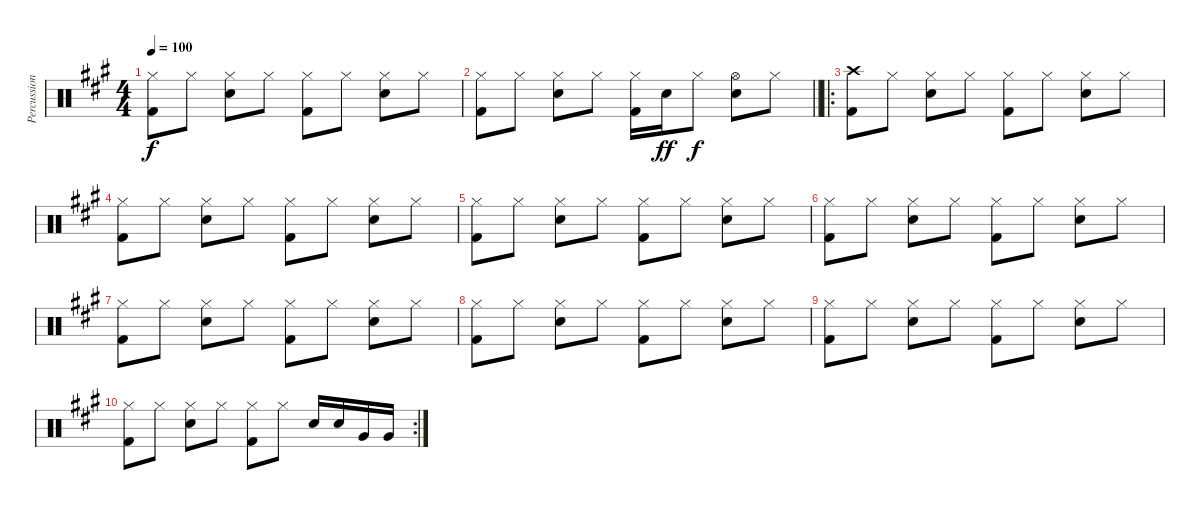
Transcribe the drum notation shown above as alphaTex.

\track ("Percussion" "Percussion") {instrument percussion}
\staff {score}
\articulation defaults
\ts (4 4)
\tempo 100
\clef neutral
\ks a
("Hi-Hat (closed)" "Kick (hit) 2").8{dy f} "Hi-Hat (closed)".8 ("Hi-Hat (closed)" "Snare (hit) 2").8 "Hi-Hat (closed)".8 ("Hi-Hat (closed)" "Kick (hit) 2").8 "Hi-Hat (closed)".8 ("Hi-Hat (closed)" "Snare (hit) 2").8 "Hi-Hat (closed)".8 |
\barLineRight lightlight
("Hi-Hat (closed)" "Kick (hit) 2").8 "Hi-Hat (closed)".8 ("Hi-Hat (closed)" "Snare (hit) 2").8 "Hi-Hat (closed)".8 ("Hi-Hat (closed)" "Kick (hit) 2").16 "Snare (hit) 2".16{dy ff} "Hi-Hat (closed)".8{dy f} ("Hi-Hat (open)" "Snare (hit) 2").8 "Hi-Hat (closed)".8 |
\ro
("Crash high (hit)" "Kick (hit) 2").8 "Hi-Hat (closed)".8 ("Hi-Hat (closed)" "Snare (hit) 2").8 "Hi-Hat (closed)".8 ("Hi-Hat (closed)" "Kick (hit) 2").8 "Hi-Hat (closed)".8 ("Hi-Hat (closed)" "Snare (hit) 2").8 "Hi-Hat (closed)".8 |
("Hi-Hat (closed)" "Kick (hit) 2").8 "Hi-Hat (closed)".8 ("Hi-Hat (closed)" "Snare (hit) 2").8 "Hi-Hat (closed)".8 ("Hi-Hat (closed)" "Kick (hit) 2").8 "Hi-Hat (closed)".8 ("Hi-Hat (closed)" "Snare (hit) 2").8 "Hi-Hat (closed)".8 |
("Hi-Hat (closed)" "Kick (hit) 2").8 "Hi-Hat (closed)".8 ("Hi-Hat (closed)" "Snare (hit) 2").8 "Hi-Hat (closed)".8 ("Hi-Hat (closed)" "Kick (hit) 2").8 "Hi-Hat (closed)".8 ("Hi-Hat (closed)" "Snare (hit) 2").8 "Hi-Hat (closed)".8 |
("Hi-Hat (closed)" "Kick (hit) 2").8 "Hi-Hat (closed)".8 ("Hi-Hat (closed)" "Snare (hit) 2").8 "Hi-Hat (closed)".8 ("Hi-Hat (closed)" "Kick (hit) 2").8 "Hi-Hat (closed)".8 ("Hi-Hat (closed)" "Snare (hit) 2").8 "Hi-Hat (closed)".8 |
("Hi-Hat (closed)" "Kick (hit) 2").8 "Hi-Hat (closed)".8 ("Hi-Hat (closed)" "Snare (hit) 2").8 "Hi-Hat (closed)".8 ("Hi-Hat (closed)" "Kick (hit) 2").8 "Hi-Hat (closed)".8 ("Hi-Hat (closed)" "Snare (hit) 2").8 "Hi-Hat (closed)".8 |
("Hi-Hat (closed)" "Kick (hit) 2").8 "Hi-Hat (closed)".8 ("Hi-Hat (closed)" "Snare (hit) 2").8 "Hi-Hat (closed)".8 ("Hi-Hat (closed)" "Kick (hit) 2").8 "Hi-Hat (closed)".8 ("Hi-Hat (closed)" "Snare (hit) 2").8 "Hi-Hat (closed)".8 |
("Hi-Hat (closed)" "Kick (hit) 2").8 "Hi-Hat (closed)".8 ("Hi-Hat (closed)" "Snare (hit) 2").8 "Hi-Hat (closed)".8 ("Hi-Hat (closed)" "Kick (hit) 2").8 "Hi-Hat (closed)".8 ("Hi-Hat (closed)" "Snare (hit) 2").8 "Hi-Hat (closed)".8 |
\rc 2
("Hi-Hat (closed)" "Kick (hit) 2").8 "Hi-Hat (closed)".8 ("Hi-Hat (closed)" "Snare (hit) 2").8 "Hi-Hat (closed)".8 ("Hi-Hat (closed)" "Kick (hit) 2").8 "Hi-Hat (closed)".8 "Snare (hit) 2".16 "Snare (hit) 2".16 "Very Low Tom (hit)".16 "Very Low Tom (hit)".16
